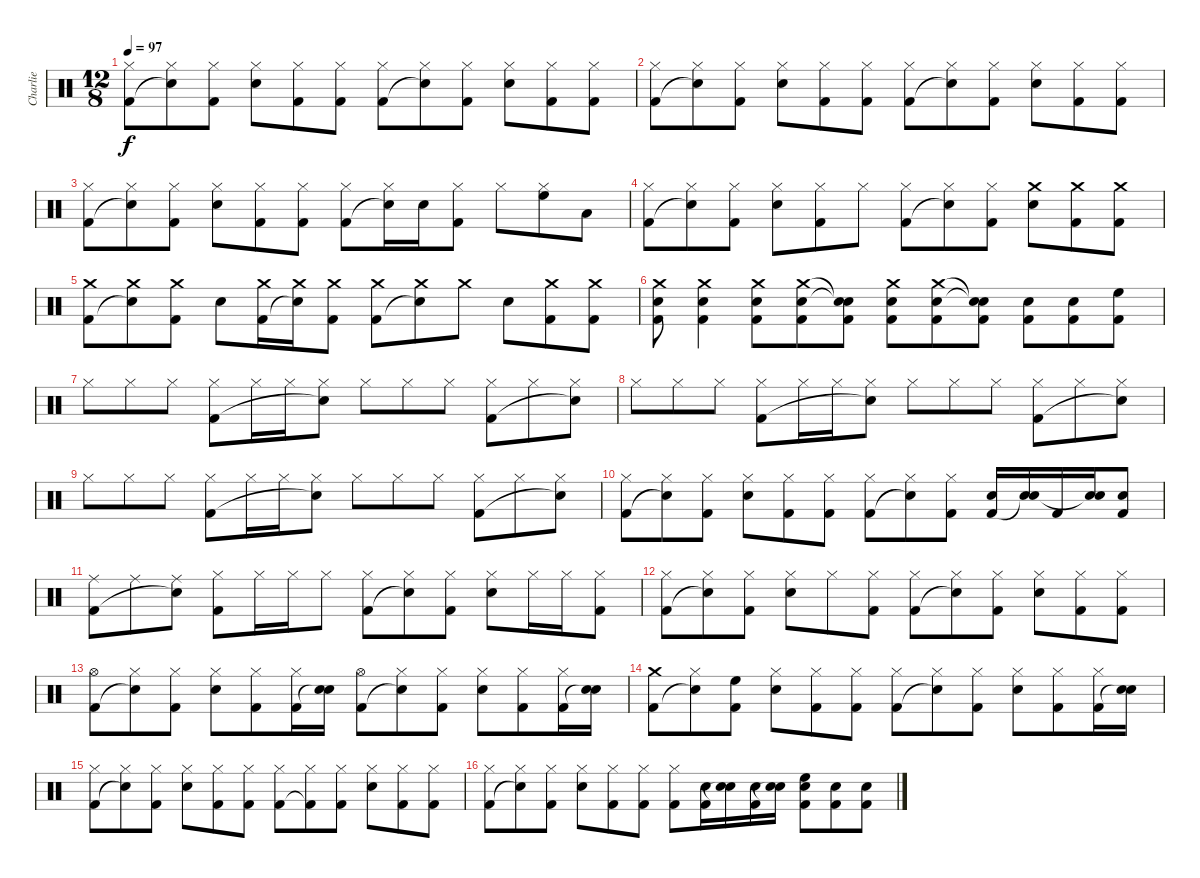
\track ("Charlie" "Charlie") {instrument percussion}
\staff {score}
\articulation defaults
\ts (12 8)
\tempo 97
\clef neutral
\ks c
("Hi-Hat (closed)" "Kick (hit) 2").8{dy f} ("Hi-Hat (closed)" "Snare (hit)"{t}).8 ("Hi-Hat (closed)" "Kick (hit) 2").8 ("Hi-Hat (closed)" "Snare (hit) 2").8 ("Hi-Hat (closed)" "Kick (hit) 2").8 ("Hi-Hat (closed)" "Kick (hit) 2").8 ("Hi-Hat (closed)" "Kick (hit) 2").8 ("Hi-Hat (closed)" "Snare (hit)"{t}).8 ("Hi-Hat (closed)" "Kick (hit) 2").8 ("Hi-Hat (closed)" "Snare (hit) 2").8 ("Hi-Hat (closed)" "Kick (hit) 2").8 ("Hi-Hat (closed)" "Kick (hit) 2").8 |
("Hi-Hat (closed)" "Kick (hit) 2").8 ("Hi-Hat (closed)" "Snare (hit)"{t}).8 ("Hi-Hat (closed)" "Kick (hit) 2").8 ("Hi-Hat (closed)" "Snare (hit) 2").8 ("Hi-Hat (closed)" "Kick (hit) 2").8 ("Hi-Hat (closed)" "Kick (hit) 2").8 ("Hi-Hat (closed)" "Kick (hit) 2").8 ("Hi-Hat (closed)" "Snare (hit)"{t}).8 ("Hi-Hat (closed)" "Kick (hit) 2").8 ("Hi-Hat (closed)" "Snare (hit) 2").8 ("Hi-Hat (closed)" "Kick (hit) 2").8 ("Hi-Hat (closed)" "Kick (hit) 2").8 |
("Hi-Hat (closed)" "Kick (hit) 2").8 ("Hi-Hat (closed)" "Snare (hit)"{t}).8 ("Hi-Hat (closed)" "Kick (hit) 2").8 ("Hi-Hat (closed)" "Snare (hit) 2").8 ("Hi-Hat (closed)" "Kick (hit) 2").8 ("Hi-Hat (closed)" "Kick (hit) 2").8 ("Hi-Hat (closed)" "Kick (hit) 2").8 ("Hi-Hat (closed)" "Snare (hit)"{t}).16 "Snare (hit) 2".16 ("Hi-Hat (closed)" "Kick (hit) 2").8 "Hi-Hat (closed)".8 ("Hi-Hat (closed)" "High Floor Tom (hit)").8 "Low Tom (hit)".8 |
("Hi-Hat (closed)" "Kick (hit) 2").8 ("Hi-Hat (closed)" "Snare (hit)"{t}).8 ("Hi-Hat (closed)" "Kick (hit) 2").8 ("Hi-Hat (closed)" "Snare (hit) 2").8 ("Hi-Hat (closed)" "Kick (hit) 2").8 "Hi-Hat (closed)".8 ("Hi-Hat (closed)" "Kick (hit) 2").8 ("Hi-Hat (closed)" "Snare (hit)"{t}).8 ("Hi-Hat (closed)" "Kick (hit) 2").8 ("Crash medium (hit)" "Snare (hit) 2").8 ("Crash medium (hit)" "Kick (hit) 2").8 ("Crash medium (hit)" "Kick (hit) 2").8 |
("Crash medium (hit)" "Kick (hit) 2").8 ("Crash medium (hit)" "Snare (hit)"{t}).8 ("Crash medium (hit)" "Kick (hit) 2").8 "Snare (hit) 2".8 ("Crash medium (hit)" "Kick (hit) 2").16 ("Crash medium (hit)" "Snare (hit)"{t}).16 ("Crash medium (hit)" "Kick (hit) 2").8 ("Crash medium (hit)" "Kick (hit) 2").8 ("Crash medium (hit)" "Snare (hit)"{t}).8 "Crash medium (hit)".8 "Snare (hit) 2".8 ("Crash medium (hit)" "Kick (hit) 2").8 ("Crash medium (hit)" "Kick (hit) 2").8 |
("Crash medium (hit)" "Snare (hit) 2" "Kick (hit) 2").8 ("Crash medium (hit)" "Snare (hit) 2" "Kick (hit) 2").4 ("Crash medium (hit)" "Snare (hit) 2" "Kick (hit) 2").8 ("Crash medium (hit)" "Snare (hit) 2" "Kick (hit) 2").8 ("Snare (hit)"{t} "Snare (hit)"{t} "Kick (hit) 2").8 ("Crash medium (hit)" "Snare (hit) 2" "Kick (hit) 2").8 ("Crash medium (hit)" "Snare (hit) 2" "Kick (hit) 2").8 ("Snare (hit)"{t} "Snare (hit)"{t} "Kick (hit) 2").8 ("Snare (hit) 2" "Kick (hit) 2").8 ("Snare (hit) 2" "Kick (hit) 2").8 ("High Floor Tom (hit)" "Kick (hit) 2").8 |
"Hi-Hat (closed)".8 "Hi-Hat (closed)".8 "Hi-Hat (closed)".8 ("Hi-Hat (closed)" "Kick (hit) 2").8 "Hi-Hat (closed)".16 "Hi-Hat (closed)".16 ("Hi-Hat (closed)" "Snare (hit)"{t}).8 "Hi-Hat (closed)".8 "Hi-Hat (closed)".8 "Hi-Hat (closed)".8 ("Hi-Hat (closed)" "Kick (hit) 2").8 "Hi-Hat (closed)".8 ("Hi-Hat (closed)" "Snare (hit)"{t}).8 |
"Hi-Hat (closed)".8 "Hi-Hat (closed)".8 "Hi-Hat (closed)".8 ("Hi-Hat (closed)" "Kick (hit) 2").8 "Hi-Hat (closed)".16 "Hi-Hat (closed)".16 ("Hi-Hat (closed)" "Snare (hit)"{t}).8 "Hi-Hat (closed)".8 "Hi-Hat (closed)".8 "Hi-Hat (closed)".8 ("Hi-Hat (closed)" "Kick (hit) 2").8 "Hi-Hat (closed)".8 ("Hi-Hat (closed)" "Snare (hit)"{t}).8 |
"Hi-Hat (closed)".8 "Hi-Hat (closed)".8 "Hi-Hat (closed)".8 ("Hi-Hat (closed)" "Kick (hit) 2").8 "Hi-Hat (closed)".16 "Hi-Hat (closed)".16 ("Hi-Hat (closed)" "Snare (hit)"{t}).8 "Hi-Hat (closed)".8 "Hi-Hat (closed)".8 "Hi-Hat (closed)".8 ("Hi-Hat (closed)" "Kick (hit) 2").8 "Hi-Hat (closed)".8 ("Hi-Hat (closed)" "Snare (hit)"{t}).8 |
("Hi-Hat (closed)" "Kick (hit) 2").8 ("Hi-Hat (closed)" "Snare (hit)"{t}).8 ("Hi-Hat (closed)" "Kick (hit) 2").8 ("Hi-Hat (closed)" "Snare (hit) 2").8 ("Hi-Hat (closed)" "Kick (hit) 2").8 ("Hi-Hat (closed)" "Kick (hit) 2").8 ("Hi-Hat (closed)" "Kick (hit) 2").8 ("Hi-Hat (closed)" "Snare (hit)"{t}).8 ("Hi-Hat (closed)" "Kick (hit) 2").8 ("Snare (hit) 2" "Kick (hit) 2").16 ("Snare (hit) 2" "Snare (hit)"{t}).16 "Kick (hit) 2".16 ("Snare (hit) 2" "Snare (hit)"{t}).16 ("Snare (hit) 2" "Kick (hit) 2").8 |
("Ride (middle)" "Kick (hit) 2").8 "Ride (middle)".8 ("Ride (middle)" "Snare (hit)"{t}).8 ("Hi-Hat (closed)" "Kick (hit) 2").8 "Hi-Hat (closed)".16 "Hi-Hat (closed)".16 "Hi-Hat (closed)".8 ("Hi-Hat (closed)" "Kick (hit) 2").8 ("Hi-Hat (closed)" "Snare (hit)"{t}).8 ("Hi-Hat (closed)" "Kick (hit) 2").8 ("Hi-Hat (closed)" "Snare (hit) 2").8 "Hi-Hat (closed)".16 "Hi-Hat (closed)".16 ("Hi-Hat (closed)" "Kick (hit) 2").8 |
("Hi-Hat (closed)" "Kick (hit) 2").8 ("Hi-Hat (closed)" "Snare (hit)"{t}).8 ("Hi-Hat (closed)" "Kick (hit) 2").8 ("Hi-Hat (closed)" "Snare (hit) 2").8 "Hi-Hat (closed)".8 ("Hi-Hat (closed)" "Kick (hit) 2").8 ("Hi-Hat (closed)" "Kick (hit) 2").8 ("Hi-Hat (closed)" "Snare (hit)"{t}).8 ("Hi-Hat (closed)" "Kick (hit) 2").8 ("Hi-Hat (closed)" "Snare (hit) 2").8 ("Hi-Hat (closed)" "Kick (hit) 2").8 ("Hi-Hat (closed)" "Kick (hit) 2").8 |
("Hi-Hat (open)" "Kick (hit) 2").8 ("Hi-Hat (closed)" "Snare (hit)"{t}).8 ("Hi-Hat (closed)" "Kick (hit) 2").8 ("Hi-Hat (closed)" "Snare (hit) 2").8 ("Hi-Hat (closed)" "Kick (hit) 2").8 ("Hi-Hat (closed)" "Kick (hit) 2").16 ("Snare (hit) 2" "Snare (hit)"{t}).16 ("Hi-Hat (open)" "Kick (hit) 2").8 ("Hi-Hat (closed)" "Snare (hit)"{t}).8 ("Hi-Hat (closed)" "Kick (hit) 2").8 ("Hi-Hat (closed)" "Snare (hit) 2").8 ("Hi-Hat (closed)" "Kick (hit) 2").8 ("Hi-Hat (closed)" "Kick (hit) 2").16 ("Snare (hit) 2" "Snare (hit)"{t}).16 |
("Crash medium (hit)" "Kick (hit) 2").8 ("Hi-Hat (closed)" "Snare (hit)"{t}).8 ("High Floor Tom (hit)" "Kick (hit) 2").8 ("Hi-Hat (closed)" "Snare (hit) 2").8 ("Hi-Hat (closed)" "Kick (hit) 2").8 ("Hi-Hat (closed)" "Kick (hit) 2").8 ("Hi-Hat (closed)" "Kick (hit) 2").8 ("Hi-Hat (closed)" "Snare (hit)"{t}).8 ("Hi-Hat (closed)" "Kick (hit) 2").8 ("Hi-Hat (closed)" "Snare (hit) 2").8 ("Hi-Hat (closed)" "Kick (hit) 2").8 ("Hi-Hat (closed)" "Kick (hit) 2").16 ("Snare (hit) 2" "Snare (hit)"{t}).16 |
("Hi-Hat (closed)" "Kick (hit) 2").8 ("Hi-Hat (closed)" "Snare (hit)"{t}).8 ("Hi-Hat (closed)" "Kick (hit) 2").8 ("Hi-Hat (closed)" "Snare (hit) 2").8 ("Hi-Hat (closed)" "Kick (hit) 2").8 ("Hi-Hat (closed)" "Kick (hit) 2").8 ("Hi-Hat (closed)" "Kick (hit) 2").8 ("Hi-Hat (closed)" "Kick (hit) 2"{t}).8 ("Hi-Hat (closed)" "Kick (hit) 2").8 ("Hi-Hat (closed)" "Snare (hit) 2").8 ("Hi-Hat (closed)" "Kick (hit) 2").8 ("Hi-Hat (closed)" "Kick (hit) 2").8 |
("Hi-Hat (closed)" "Kick (hit) 2").8 ("Hi-Hat (closed)" "Snare (hit)"{t}).8 ("Hi-Hat (closed)" "Kick (hit) 2").8 ("Hi-Hat (closed)" "Snare (hit) 2").8 ("Hi-Hat (closed)" "Kick (hit) 2").8 ("Hi-Hat (closed)" "Kick (hit) 2").8 ("Hi-Hat (closed)" "Kick (hit) 2").8 ("Snare (hit) 2" "Kick (hit) 2").16 ("Snare (hit) 2" "Snare (hit)"{t}).16 ("Snare (hit) 2" "Kick (hit) 2").16 ("Snare (hit) 2" "Snare (hit)"{t}).16 ("High Floor Tom (hit)" "Snare (hit) 2" "Kick (hit) 2").8 ("Snare (hit) 2" "Kick (hit) 2").8 ("Snare (hit) 2" "Kick (hit) 2").8
